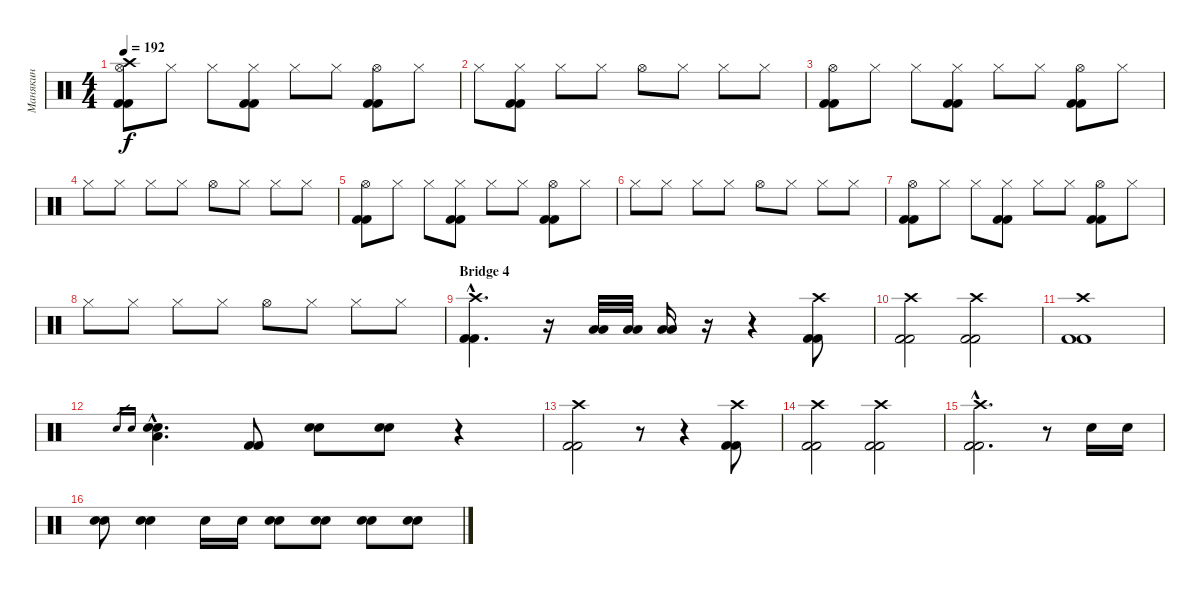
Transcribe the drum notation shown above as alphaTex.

\track ("Манякин" "Манякин") {instrument percussion}
\staff {score}
\articulation defaults
\ts (4 4)
\tempo 192
\clef neutral
\ks c
("Hi-Hat (open)" "Crash high (hit)" "Kick (hit) 2" "Kick (hit) 2").8{dy f} "Hi-Hat (closed)".8 "Hi-Hat (closed)".8 ("Hi-Hat (closed)" "Kick (hit) 2" "Kick (hit) 2").8 "Hi-Hat (closed)".8 "Hi-Hat (closed)".8 ("Hi-Hat (open)" "Kick (hit) 2" "Kick (hit) 2").8 "Hi-Hat (closed)".8 |
"Hi-Hat (closed)".8 ("Hi-Hat (closed)" "Kick (hit) 2" "Kick (hit) 2").8 "Hi-Hat (closed)".8 "Hi-Hat (closed)".8 "Hi-Hat (open)".8 "Hi-Hat (closed)".8 "Hi-Hat (closed)".8 "Hi-Hat (closed)".8 |
("Hi-Hat (open)" "Kick (hit) 2" "Kick (hit) 2").8 "Hi-Hat (closed)".8 "Hi-Hat (closed)".8 ("Hi-Hat (closed)" "Kick (hit) 2" "Kick (hit) 2").8 "Hi-Hat (closed)".8 "Hi-Hat (closed)".8 ("Hi-Hat (open)" "Kick (hit) 2" "Kick (hit) 2").8 "Hi-Hat (closed)".8 |
"Hi-Hat (closed)".8 "Hi-Hat (closed)".8 "Hi-Hat (closed)".8 "Hi-Hat (closed)".8 "Hi-Hat (open)".8 "Hi-Hat (closed)".8 "Hi-Hat (closed)".8 "Hi-Hat (closed)".8 |
("Hi-Hat (open)" "Kick (hit) 2" "Kick (hit) 2").8 "Hi-Hat (closed)".8 "Hi-Hat (closed)".8 ("Hi-Hat (closed)" "Kick (hit) 2" "Kick (hit) 2").8 "Hi-Hat (closed)".8 "Hi-Hat (closed)".8 ("Hi-Hat (open)" "Kick (hit) 2" "Kick (hit) 2").8 "Hi-Hat (closed)".8 |
"Hi-Hat (closed)".8 "Hi-Hat (closed)".8 "Hi-Hat (closed)".8 "Hi-Hat (closed)".8 "Hi-Hat (open)".8 "Hi-Hat (closed)".8 "Hi-Hat (closed)".8 "Hi-Hat (closed)".8 |
("Hi-Hat (open)" "Kick (hit) 2" "Kick (hit) 2").8 "Hi-Hat (closed)".8 "Hi-Hat (closed)".8 ("Hi-Hat (closed)" "Kick (hit) 2" "Kick (hit) 2").8 "Hi-Hat (closed)".8 "Hi-Hat (closed)".8 ("Hi-Hat (open)" "Kick (hit) 2" "Kick (hit) 2").8 "Hi-Hat (closed)".8 |
"Hi-Hat (closed)".8 "Hi-Hat (closed)".8 "Hi-Hat (closed)".8 "Hi-Hat (closed)".8 "Hi-Hat (open)".8 "Hi-Hat (closed)".8 "Hi-Hat (closed)".8 "Hi-Hat (closed)".8 |
\section ("" "Bridge 4")
("Crash high (hit)"{hac} "Kick (hit) 2"{hac} "Kick (hit) 2"{hac}).4{d} r.16 ("Low Tom (hit)" "Low Tom (hit)").32 ("Low Tom (hit)" "Low Tom (hit)").32 ("Low Tom (hit)" "Low Tom (hit)").16 r.16 r.4 ("Crash high (hit)" "Kick (hit) 2" "Kick (hit) 2").8 |
("Crash high (hit)" "Kick (hit) 2" "Kick (hit) 2").2 ("Crash high (hit)" "Kick (hit) 2" "Kick (hit) 2").2 |
("Crash high (hit)" "Kick (hit) 2" "Kick (hit) 2").1 |
"Electric Snare (hit)".16{gr} "Electric Snare (hit)".16{gr} ("Electric Snare (hit)"{hac} "Electric Snare (hit)"{hac} "Low Tom (hit)"{hac}).4{d} ("Kick (hit) 2" "Kick (hit) 2").8 ("Electric Snare (hit)" "Electric Snare (hit)").8 ("Electric Snare (hit)" "Electric Snare (hit)").8 r.4 |
("Crash high (hit)" "Kick (hit) 2" "Kick (hit) 2").2 r.8 r.4 ("Crash high (hit)" "Kick (hit) 2" "Kick (hit) 2").8 |
("Crash high (hit)" "Kick (hit) 2" "Kick (hit) 2").2 ("Crash high (hit)" "Kick (hit) 2" "Kick (hit) 2").2 |
("Crash high (hit)"{hac} "Kick (hit) 2"{hac} "Kick (hit) 2"{hac}).2{d} r.8 "Electric Snare (hit)".16 "Electric Snare (hit)".16 |
("Electric Snare (hit)" "Electric Snare (hit)").8 ("Electric Snare (hit)" "Electric Snare (hit)").4 "Electric Snare (hit)".16 "Electric Snare (hit)".16 ("Electric Snare (hit)" "Electric Snare (hit)").8 ("Electric Snare (hit)" "Electric Snare (hit)").8 ("Electric Snare (hit)" "Electric Snare (hit)").8 ("Electric Snare (hit)" "Electric Snare (hit)").8
